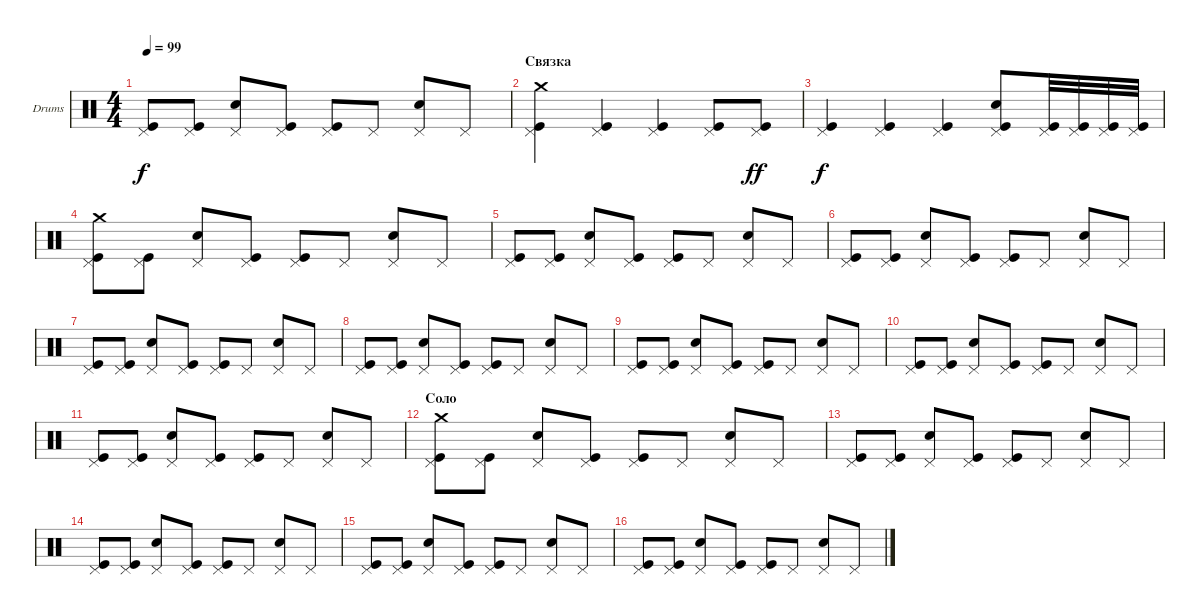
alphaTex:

\defaultSystemsLayout 4
\bracketExtendMode groupsimilarinstruments
\firstSystemTrackNameOrientation horizontal
\otherSystemsTrackNameOrientation horizontal
\track ("Е. Кулаков" "Drums") {instrument percussion}
\staff {score}
\articulation defaults
\ts (4 4)
\tempo 99
\clef neutral
\ks c
("Pedal Hi-Hat (hit)" "Kick (hit)").8{dy f} ("Pedal Hi-Hat (hit)" "Kick (hit)").8 ("Snare (hit) 2" "Pedal Hi-Hat (hit)").8 ("Pedal Hi-Hat (hit)" "Kick (hit)").8 ("Pedal Hi-Hat (hit)" "Kick (hit)").8 "Pedal Hi-Hat (hit)".8 ("Snare (hit) 2" "Pedal Hi-Hat (hit)").8 "Pedal Hi-Hat (hit)".8 |
\section ("" "Связка")
("Pedal Hi-Hat (hit)" "Kick (hit)" "Crash medium (hit)").4 ("Pedal Hi-Hat (hit)" "Kick (hit)").4 ("Pedal Hi-Hat (hit)" "Kick (hit)").4 ("Pedal Hi-Hat (hit)" "Kick (hit)").8 ("Pedal Hi-Hat (hit)" "Kick (hit)").8{dy ff} |
("Pedal Hi-Hat (hit)" "Kick (hit)").4{dy f} ("Pedal Hi-Hat (hit)" "Kick (hit)").4 ("Pedal Hi-Hat (hit)" "Kick (hit)").4 ("Pedal Hi-Hat (hit)" "Kick (hit)" "Snare (hit) 2").8 ("Pedal Hi-Hat (hit)" "Kick (hit)").32 ("Pedal Hi-Hat (hit)" "Kick (hit)").32 ("Pedal Hi-Hat (hit)" "Kick (hit)").32 ("Pedal Hi-Hat (hit)" "Kick (hit)").32 |
("Pedal Hi-Hat (hit)" "Kick (hit)" "Crash medium (hit)").8 ("Pedal Hi-Hat (hit)" "Kick (hit)").8 ("Snare (hit) 2" "Pedal Hi-Hat (hit)").8 ("Pedal Hi-Hat (hit)" "Kick (hit)").8 ("Pedal Hi-Hat (hit)" "Kick (hit)").8 "Pedal Hi-Hat (hit)".8 ("Snare (hit) 2" "Pedal Hi-Hat (hit)").8 "Pedal Hi-Hat (hit)".8 |
("Pedal Hi-Hat (hit)" "Kick (hit)").8 ("Pedal Hi-Hat (hit)" "Kick (hit)").8 ("Snare (hit) 2" "Pedal Hi-Hat (hit)").8 ("Pedal Hi-Hat (hit)" "Kick (hit)").8 ("Pedal Hi-Hat (hit)" "Kick (hit)").8 "Pedal Hi-Hat (hit)".8 ("Snare (hit) 2" "Pedal Hi-Hat (hit)").8 "Pedal Hi-Hat (hit)".8 |
("Pedal Hi-Hat (hit)" "Kick (hit)").8 ("Pedal Hi-Hat (hit)" "Kick (hit)").8 ("Snare (hit) 2" "Pedal Hi-Hat (hit)").8 ("Pedal Hi-Hat (hit)" "Kick (hit)").8 ("Pedal Hi-Hat (hit)" "Kick (hit)").8 "Pedal Hi-Hat (hit)".8 ("Snare (hit) 2" "Pedal Hi-Hat (hit)").8 "Pedal Hi-Hat (hit)".8 |
("Pedal Hi-Hat (hit)" "Kick (hit)").8 ("Pedal Hi-Hat (hit)" "Kick (hit)").8 ("Snare (hit) 2" "Pedal Hi-Hat (hit)").8 ("Pedal Hi-Hat (hit)" "Kick (hit)").8 ("Pedal Hi-Hat (hit)" "Kick (hit)").8 "Pedal Hi-Hat (hit)".8 ("Snare (hit) 2" "Pedal Hi-Hat (hit)").8 "Pedal Hi-Hat (hit)".8 |
("Pedal Hi-Hat (hit)" "Kick (hit)").8 ("Pedal Hi-Hat (hit)" "Kick (hit)").8 ("Snare (hit) 2" "Pedal Hi-Hat (hit)").8 ("Pedal Hi-Hat (hit)" "Kick (hit)").8 ("Pedal Hi-Hat (hit)" "Kick (hit)").8 "Pedal Hi-Hat (hit)".8 ("Snare (hit) 2" "Pedal Hi-Hat (hit)").8 "Pedal Hi-Hat (hit)".8 |
("Pedal Hi-Hat (hit)" "Kick (hit)").8 ("Pedal Hi-Hat (hit)" "Kick (hit)").8 ("Snare (hit) 2" "Pedal Hi-Hat (hit)").8 ("Pedal Hi-Hat (hit)" "Kick (hit)").8 ("Pedal Hi-Hat (hit)" "Kick (hit)").8 "Pedal Hi-Hat (hit)".8 ("Snare (hit) 2" "Pedal Hi-Hat (hit)").8 "Pedal Hi-Hat (hit)".8 |
("Pedal Hi-Hat (hit)" "Kick (hit)").8 ("Pedal Hi-Hat (hit)" "Kick (hit)").8 ("Snare (hit) 2" "Pedal Hi-Hat (hit)").8 ("Pedal Hi-Hat (hit)" "Kick (hit)").8 ("Pedal Hi-Hat (hit)" "Kick (hit)").8 "Pedal Hi-Hat (hit)".8 ("Snare (hit) 2" "Pedal Hi-Hat (hit)").8 "Pedal Hi-Hat (hit)".8 |
("Pedal Hi-Hat (hit)" "Kick (hit)").8 ("Pedal Hi-Hat (hit)" "Kick (hit)").8 ("Snare (hit) 2" "Pedal Hi-Hat (hit)").8 ("Pedal Hi-Hat (hit)" "Kick (hit)").8 ("Pedal Hi-Hat (hit)" "Kick (hit)").8 "Pedal Hi-Hat (hit)".8 ("Snare (hit) 2" "Pedal Hi-Hat (hit)").8 "Pedal Hi-Hat (hit)".8 |
\section ("" "Соло")
("Pedal Hi-Hat (hit)" "Kick (hit)" "Crash medium (hit)").8 ("Pedal Hi-Hat (hit)" "Kick (hit)").8 ("Snare (hit) 2" "Pedal Hi-Hat (hit)").8 ("Pedal Hi-Hat (hit)" "Kick (hit)").8 ("Pedal Hi-Hat (hit)" "Kick (hit)").8 "Pedal Hi-Hat (hit)".8 ("Snare (hit) 2" "Pedal Hi-Hat (hit)").8 "Pedal Hi-Hat (hit)".8 |
("Pedal Hi-Hat (hit)" "Kick (hit)").8 ("Pedal Hi-Hat (hit)" "Kick (hit)").8 ("Snare (hit) 2" "Pedal Hi-Hat (hit)").8 ("Pedal Hi-Hat (hit)" "Kick (hit)").8 ("Pedal Hi-Hat (hit)" "Kick (hit)").8 "Pedal Hi-Hat (hit)".8 ("Snare (hit) 2" "Pedal Hi-Hat (hit)").8 "Pedal Hi-Hat (hit)".8 |
("Pedal Hi-Hat (hit)" "Kick (hit)").8 ("Pedal Hi-Hat (hit)" "Kick (hit)").8 ("Snare (hit) 2" "Pedal Hi-Hat (hit)").8 ("Pedal Hi-Hat (hit)" "Kick (hit)").8 ("Pedal Hi-Hat (hit)" "Kick (hit)").8 "Pedal Hi-Hat (hit)".8 ("Snare (hit) 2" "Pedal Hi-Hat (hit)").8 "Pedal Hi-Hat (hit)".8 |
("Pedal Hi-Hat (hit)" "Kick (hit)").8 ("Pedal Hi-Hat (hit)" "Kick (hit)").8 ("Snare (hit) 2" "Pedal Hi-Hat (hit)").8 ("Pedal Hi-Hat (hit)" "Kick (hit)").8 ("Pedal Hi-Hat (hit)" "Kick (hit)").8 "Pedal Hi-Hat (hit)".8 ("Snare (hit) 2" "Pedal Hi-Hat (hit)").8 "Pedal Hi-Hat (hit)".8 |
("Pedal Hi-Hat (hit)" "Kick (hit)").8 ("Pedal Hi-Hat (hit)" "Kick (hit)").8 ("Snare (hit) 2" "Pedal Hi-Hat (hit)").8 ("Pedal Hi-Hat (hit)" "Kick (hit)").8 ("Pedal Hi-Hat (hit)" "Kick (hit)").8 "Pedal Hi-Hat (hit)".8 ("Snare (hit) 2" "Pedal Hi-Hat (hit)").8 "Pedal Hi-Hat (hit)".8
